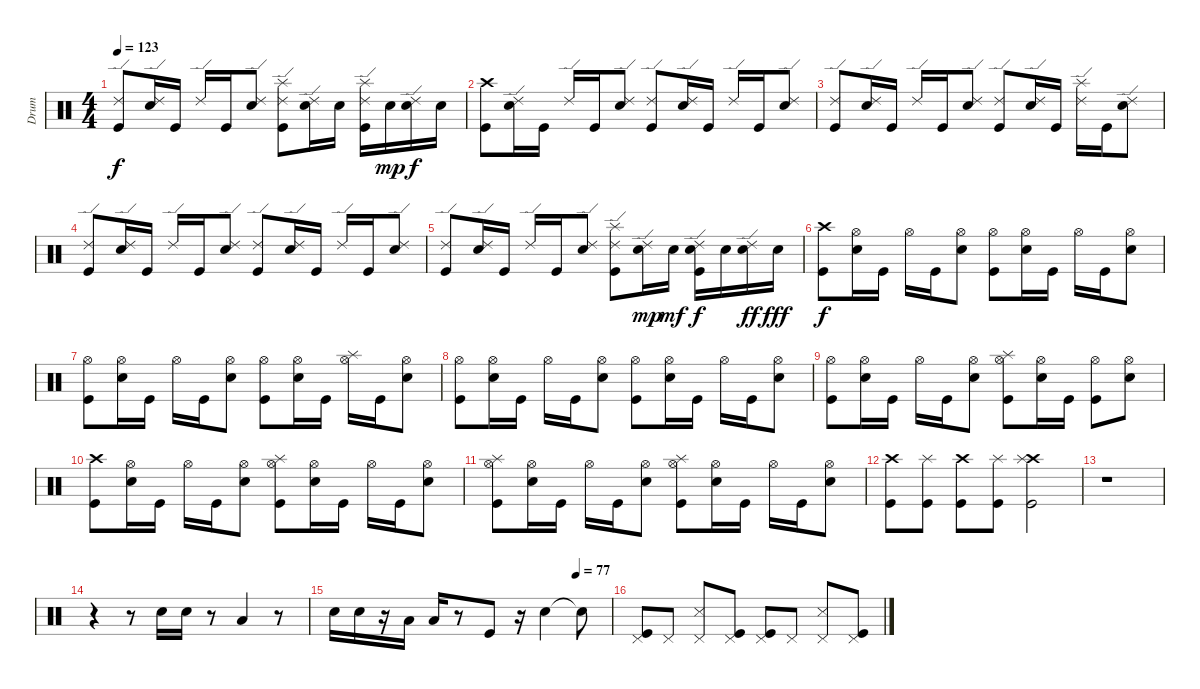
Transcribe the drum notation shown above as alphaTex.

\track ("Drum" "Drum") {instrument percussion}
\staff {score}
\articulation defaults
\ts (4 4)
\tempo 123
\clef neutral
\ks c
("Ride (edge) 2" "Kick (hit)").8{dy f} ("Ride (edge) 2" "Snare (hit) 2").16 "Kick (hit)".16 "Ride (edge) 2".16 "Kick (hit)".16 ("Ride (edge) 2" "Snare (hit) 2").8 ("Ride (edge) 2" "Splash (hit)" "Kick (hit)").8 ("Ride (edge) 2" "Snare (hit) 2").16 "Snare (hit) 2".16 ("Ride (edge) 2" "Splash (hit)" "Kick (hit)").16 "Snare (hit) 2".16{dy mp} ("Ride (edge) 2" "Snare (hit) 2").16{dy f} "Snare (hit) 2".16 |
("Crash high (hit)" "Kick (hit)").8 ("Ride (edge) 2" "Snare (hit) 2").16 "Kick (hit)".16 "Ride (edge) 2".16 "Kick (hit)".16 ("Ride (edge) 2" "Snare (hit) 2").8 ("Ride (edge) 2" "Kick (hit)").8 ("Ride (edge) 2" "Snare (hit) 2").16 "Kick (hit)".16 "Ride (edge) 2".16 "Kick (hit)".16 ("Ride (edge) 2" "Snare (hit) 2").8 |
("Ride (edge) 2" "Kick (hit)").8 ("Ride (edge) 2" "Snare (hit) 2").16 "Kick (hit)".16 "Ride (edge) 2".16 "Kick (hit)".16 ("Ride (edge) 2" "Snare (hit) 2").8 ("Ride (edge) 2" "Kick (hit)").8 ("Ride (edge) 2" "Snare (hit) 2").16 "Kick (hit)".16 ("Ride (edge) 2" "Splash (hit)").16 "Kick (hit)".16 ("Ride (edge) 2" "Snare (hit) 2").8 |
("Ride (edge) 2" "Kick (hit)").8 ("Ride (edge) 2" "Snare (hit) 2").16 "Kick (hit)".16 "Ride (edge) 2".16 "Kick (hit)".16 ("Ride (edge) 2" "Snare (hit) 2").8 ("Ride (edge) 2" "Kick (hit)").8 ("Ride (edge) 2" "Snare (hit) 2").16 "Kick (hit)".16 "Ride (edge) 2".16 "Kick (hit)".16 ("Ride (edge) 2" "Snare (hit) 2").8 |
("Ride (edge) 2" "Kick (hit)").8 ("Ride (edge) 2" "Snare (hit) 2").16 "Kick (hit)".16 "Ride (edge) 2".16 "Kick (hit)".16 ("Ride (edge) 2" "Snare (hit) 2").8 ("Ride (edge) 2" "Splash (hit)" "Kick (hit)").8 ("Ride (edge) 2" "Snare (hit) 2").16{dy mp} "Snare (hit) 2".16{dy mf} ("Ride (edge) 2" "Snare (hit) 2" "Kick (hit)").16{dy f} "Snare (hit) 2".16 ("Ride (edge) 2" "Snare (hit) 2").16{dy ff} "Snare (hit) 2".16{dy fff} |
("Crash high (hit)" "Kick (hit)").8{dy f} ("Hi-Hat (open)" "Snare (hit) 2").16 "Kick (hit)".16 "Hi-Hat (open)".16 "Kick (hit)".16 ("Hi-Hat (open)" "Snare (hit) 2").8 ("Hi-Hat (open)" "Kick (hit)").8 ("Hi-Hat (open)" "Snare (hit) 2").16 "Kick (hit)".16 "Hi-Hat (open)".16 "Kick (hit)".16 ("Hi-Hat (open)" "Snare (hit) 2").8 |
("Hi-Hat (open)" "Kick (hit)").8 ("Hi-Hat (open)" "Snare (hit) 2").16 "Kick (hit)".16 "Hi-Hat (open)".16 "Kick (hit)".16 ("Hi-Hat (open)" "Snare (hit) 2").8 ("Hi-Hat (open)" "Kick (hit)").8 ("Hi-Hat (open)" "Snare (hit) 2").16 "Kick (hit)".16 ("Hi-Hat (open)" "Splash (hit)").16 "Kick (hit)".16 ("Hi-Hat (open)" "Snare (hit) 2").8 |
("Hi-Hat (open)" "Kick (hit)").8 ("Hi-Hat (open)" "Snare (hit) 2").16 "Kick (hit)".16 "Hi-Hat (open)".16 "Kick (hit)".16 ("Hi-Hat (open)" "Snare (hit) 2").8 ("Hi-Hat (open)" "Kick (hit)").8 ("Hi-Hat (open)" "Snare (hit) 2").16 "Kick (hit)".16 "Hi-Hat (open)".16 "Kick (hit)".16 ("Hi-Hat (open)" "Snare (hit) 2").8 |
("Hi-Hat (open)" "Kick (hit)").8 ("Hi-Hat (open)" "Snare (hit) 2").16 "Kick (hit)".16 "Hi-Hat (open)".16 "Kick (hit)".16 ("Hi-Hat (open)" "Snare (hit) 2").8 ("Hi-Hat (open)" "Splash (hit)" "Kick (hit)").8 ("Hi-Hat (open)" "Snare (hit) 2").16 "Kick (hit)".16 ("Hi-Hat (open)" "Kick (hit)").8 ("Hi-Hat (open)" "Snare (hit) 2").8 |
("Crash high (hit)" "Kick (hit)").8 ("Hi-Hat (open)" "Snare (hit) 2").16 "Kick (hit)".16 "Hi-Hat (open)".16 "Kick (hit)".16 ("Hi-Hat (open)" "Snare (hit) 2").8 ("Hi-Hat (open)" "Splash (hit)" "Kick (hit)").8 ("Hi-Hat (open)" "Snare (hit) 2").16 "Kick (hit)".16 "Hi-Hat (open)".16 "Kick (hit)".16 ("Hi-Hat (open)" "Snare (hit) 2").8 |
("Hi-Hat (open)" "Splash (hit)" "Kick (hit)").8 ("Hi-Hat (open)" "Snare (hit) 2").16 "Kick (hit)".16 "Hi-Hat (open)".16 "Kick (hit)".16 ("Hi-Hat (open)" "Snare (hit) 2").8 ("Hi-Hat (open)" "Splash (hit)" "Kick (hit)").8 ("Hi-Hat (open)" "Snare (hit) 2").16 "Kick (hit)".16 "Hi-Hat (open)".16 "Kick (hit)".16 ("Hi-Hat (open)" "Snare (hit) 2").8 |
("Crash high (hit)" "Kick (hit)").8 ("Splash (hit)" "Kick (hit)").8 ("Crash high (hit)" "Kick (hit)").8 ("Splash (hit)" "Kick (hit)").8 ("Crash high (hit)" "Splash (hit)" "Kick (hit)").2 |
r.1 |
r.4 r.8 "Snare (hit) 2".16 "Snare (hit) 2".16 r.8 "Low Tom (hit)".4 r.8 |
\tempo (77 0.875)
"Snare (hit) 2".16 "Snare (hit) 2".16 r.16 "Low Tom (hit)".16 "Low Tom (hit)".16 r.8 "Kick (hit)".8 r.16 "Snare (hit) 2".4 "Snare (hit)"{t}.8 |
("Pedal Hi-Hat (hit)" "Kick (hit)").8 "Pedal Hi-Hat (hit)".8 ("Pedal Hi-Hat (hit)" "Snare (side stick) 3").8 ("Pedal Hi-Hat (hit)" "Kick (hit)").8 ("Pedal Hi-Hat (hit)" "Kick (hit)").8 "Pedal Hi-Hat (hit)".8 ("Pedal Hi-Hat (hit)" "Snare (side stick) 3").8 ("Pedal Hi-Hat (hit)" "Kick (hit)").8
